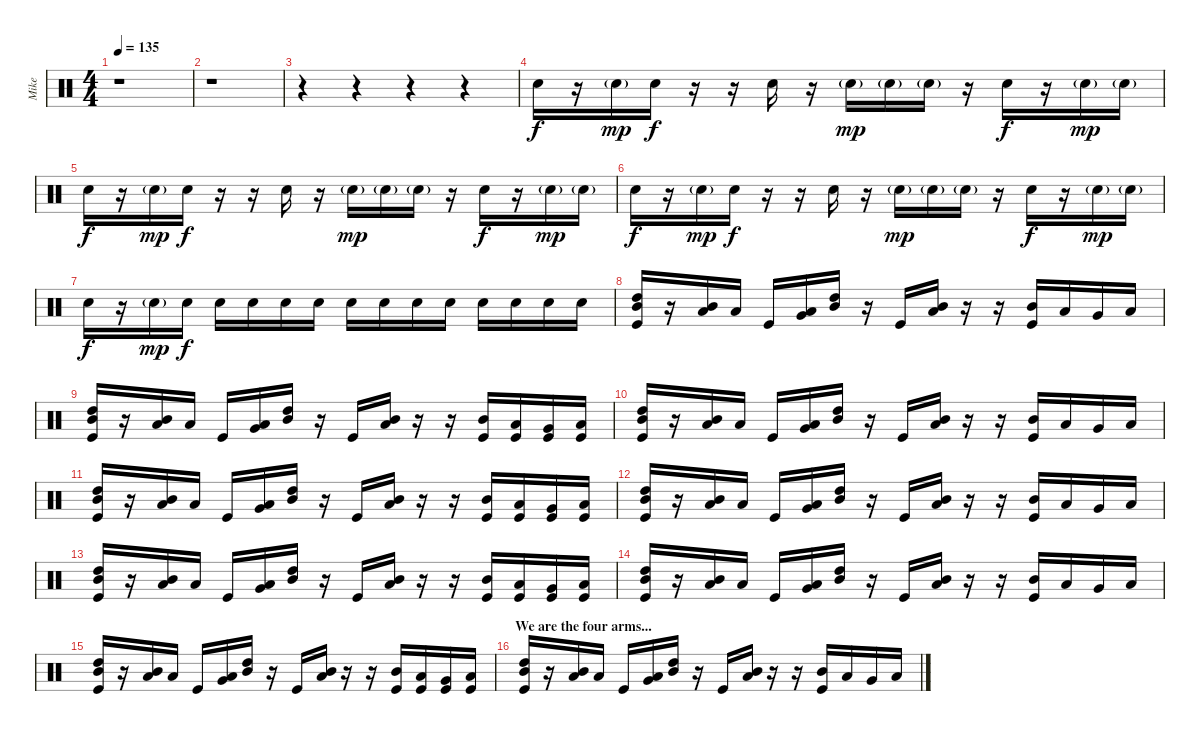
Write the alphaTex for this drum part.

\track ("Mike" "Mike") {instrument percussion}
\staff {score}
\articulation defaults
\ts (4 4)
\tempo 135
\clef neutral
\ks c
r.1{dy f} |
r.1 |
r.4 r.4 r.4 r.4{volume 7} |
"Electric Snare (hit)".16{volume 13} r.16 "Electric Snare (hit)"{g}.16{dy mp} "Electric Snare (hit)".16{dy f} r.16 r.16 "Electric Snare (hit)".16 r.16 "Electric Snare (hit)"{g}.16{dy mp} "Electric Snare (hit)"{g}.16 "Electric Snare (hit)"{g}.16 r.16 "Electric Snare (hit)".16{dy f} r.16 "Electric Snare (hit)"{g}.16{dy mp} "Electric Snare (hit)"{g}.16 |
"Electric Snare (hit)".16{dy f} r.16 "Electric Snare (hit)"{g}.16{dy mp} "Electric Snare (hit)".16{dy f} r.16 r.16 "Electric Snare (hit)".16 r.16 "Electric Snare (hit)"{g}.16{dy mp} "Electric Snare (hit)"{g}.16 "Electric Snare (hit)"{g}.16 r.16 "Electric Snare (hit)".16{dy f} r.16 "Electric Snare (hit)"{g}.16{dy mp} "Electric Snare (hit)"{g}.16 |
"Electric Snare (hit)".16{dy f} r.16 "Electric Snare (hit)"{g}.16{dy mp} "Electric Snare (hit)".16{dy f} r.16 r.16 "Electric Snare (hit)".16 r.16 "Electric Snare (hit)"{g}.16{dy mp} "Electric Snare (hit)"{g}.16 "Electric Snare (hit)"{g}.16 r.16 "Electric Snare (hit)".16{dy f} r.16 "Electric Snare (hit)"{g}.16{dy mp} "Electric Snare (hit)"{g}.16 |
"Electric Snare (hit)".16{dy f} r.16 "Electric Snare (hit)"{g}.16{dy mp} "Electric Snare (hit)".16{dy f} "Electric Snare (hit)".16 "Electric Snare (hit)".16 "Electric Snare (hit)".16 "Electric Snare (hit)".16 "Electric Snare (hit)".16 "Electric Snare (hit)".16 "Electric Snare (hit)".16 "Electric Snare (hit)".16 "Electric Snare (hit)".16 "Electric Snare (hit)".16 "Electric Snare (hit)".16 "Electric Snare (hit)".16 |
("Mid Tom (hit)" "High Tom (hit)" "Kick (hit)").16{bu 240} r.16 ("Low Tom (hit)" "Mid Tom (hit)").16{bu 240} "Low Tom (hit)".16 "Kick (hit)".16 ("Low Tom (hit)" "Very Low Tom (hit)").16 ("Mid Tom (hit)" "High Tom (hit)").16{bu 240} r.16 "Kick (hit)".16 ("Low Tom (hit)" "Mid Tom (hit)").16{bu 240} r.16 r.16 ("Mid Tom (hit)" "Kick (hit)").16 "Low Tom (hit)".16 "Very Low Tom (hit)".16 "Low Floor Tom (hit)".16 |
("Mid Tom (hit)" "High Tom (hit)" "Kick (hit)").16{bu 240} r.16 ("Low Tom (hit)" "Mid Tom (hit)").16{bu 240} "Low Tom (hit)".16 "Kick (hit)".16 ("Low Tom (hit)" "Very Low Tom (hit)").16 ("Mid Tom (hit)" "High Tom (hit)").16{bu 240} r.16 "Kick (hit)".16 ("Low Tom (hit)" "Mid Tom (hit)").16{bu 240} r.16 r.16 ("Mid Tom (hit)" "Kick (hit)").16 ("Low Tom (hit)" "Kick (hit)").16 ("Very Low Tom (hit)" "Kick (hit)").16 ("Low Floor Tom (hit)" "Kick (hit)").16 |
("Mid Tom (hit)" "High Tom (hit)" "Kick (hit)").16{bu 240} r.16 ("Low Tom (hit)" "Mid Tom (hit)").16{bu 240} "Low Tom (hit)".16 "Kick (hit)".16 ("Low Tom (hit)" "Very Low Tom (hit)").16 ("Mid Tom (hit)" "High Tom (hit)").16{bu 240} r.16 "Kick (hit)".16 ("Low Tom (hit)" "Mid Tom (hit)").16{bu 240} r.16 r.16 ("Mid Tom (hit)" "Kick (hit)").16 "Low Tom (hit)".16 "Very Low Tom (hit)".16 "Low Floor Tom (hit)".16 |
("Mid Tom (hit)" "High Tom (hit)" "Kick (hit)").16{bu 240} r.16 ("Low Tom (hit)" "Mid Tom (hit)").16{bu 240} "Low Tom (hit)".16 "Kick (hit)".16 ("Low Tom (hit)" "Very Low Tom (hit)").16 ("Mid Tom (hit)" "High Tom (hit)").16{bu 240} r.16 "Kick (hit)".16 ("Low Tom (hit)" "Mid Tom (hit)").16{bu 240} r.16 r.16 ("Mid Tom (hit)" "Kick (hit)").16 ("Low Tom (hit)" "Kick (hit)").16 ("Very Low Tom (hit)" "Kick (hit)").16 ("Low Floor Tom (hit)" "Kick (hit)").16 |
("Mid Tom (hit)" "High Tom (hit)" "Kick (hit)").16{bu 240} r.16 ("Low Tom (hit)" "Mid Tom (hit)").16{bu 240} "Low Tom (hit)".16 "Kick (hit)".16 ("Low Tom (hit)" "Very Low Tom (hit)").16 ("Mid Tom (hit)" "High Tom (hit)").16{bu 240} r.16 "Kick (hit)".16 ("Low Tom (hit)" "Mid Tom (hit)").16{bu 240} r.16 r.16 ("Mid Tom (hit)" "Kick (hit)").16 "Low Tom (hit)".16 "Very Low Tom (hit)".16 "Low Floor Tom (hit)".16 |
("Mid Tom (hit)" "High Tom (hit)" "Kick (hit)").16{bu 240} r.16 ("Low Tom (hit)" "Mid Tom (hit)").16{bu 240} "Low Tom (hit)".16 "Kick (hit)".16 ("Low Tom (hit)" "Very Low Tom (hit)").16 ("Mid Tom (hit)" "High Tom (hit)").16{bu 240} r.16 "Kick (hit)".16 ("Low Tom (hit)" "Mid Tom (hit)").16{bu 240} r.16 r.16 ("Mid Tom (hit)" "Kick (hit)").16 ("Low Tom (hit)" "Kick (hit)").16 ("Very Low Tom (hit)" "Kick (hit)").16 ("Low Floor Tom (hit)" "Kick (hit)").16 |
("Mid Tom (hit)" "High Tom (hit)" "Kick (hit)").16{bu 240} r.16 ("Low Tom (hit)" "Mid Tom (hit)").16{bu 240} "Low Tom (hit)".16 "Kick (hit)".16 ("Low Tom (hit)" "Very Low Tom (hit)").16 ("Mid Tom (hit)" "High Tom (hit)").16{bu 240} r.16 "Kick (hit)".16 ("Low Tom (hit)" "Mid Tom (hit)").16{bu 240} r.16 r.16 ("Mid Tom (hit)" "Kick (hit)").16 "Low Tom (hit)".16 "Very Low Tom (hit)".16 "Low Floor Tom (hit)".16 |
("Mid Tom (hit)" "High Tom (hit)" "Kick (hit)").16{bu 240} r.16 ("Low Tom (hit)" "Mid Tom (hit)").16{bu 240} "Low Tom (hit)".16 "Kick (hit)".16 ("Low Tom (hit)" "Very Low Tom (hit)").16 ("Mid Tom (hit)" "High Tom (hit)").16{bu 240} r.16 "Kick (hit)".16 ("Low Tom (hit)" "Mid Tom (hit)").16{bu 240} r.16 r.16 ("Mid Tom (hit)" "Kick (hit)").16 ("Low Tom (hit)" "Kick (hit)").16 ("Very Low Tom (hit)" "Kick (hit)").16 ("Low Floor Tom (hit)" "Kick (hit)").16 |
\section ("" "We are the four arms...")
("Mid Tom (hit)" "High Tom (hit)" "Kick (hit)").16{bu 240} r.16 ("Low Tom (hit)" "Mid Tom (hit)").16{bu 240} "Low Tom (hit)".16 "Kick (hit)".16 ("Low Tom (hit)" "Very Low Tom (hit)").16 ("Mid Tom (hit)" "High Tom (hit)").16{bu 240} r.16 "Kick (hit)".16 ("Low Tom (hit)" "Mid Tom (hit)").16{bu 240} r.16 r.16 ("Mid Tom (hit)" "Kick (hit)").16 "Low Tom (hit)".16 "Very Low Tom (hit)".16 "Low Floor Tom (hit)".16
